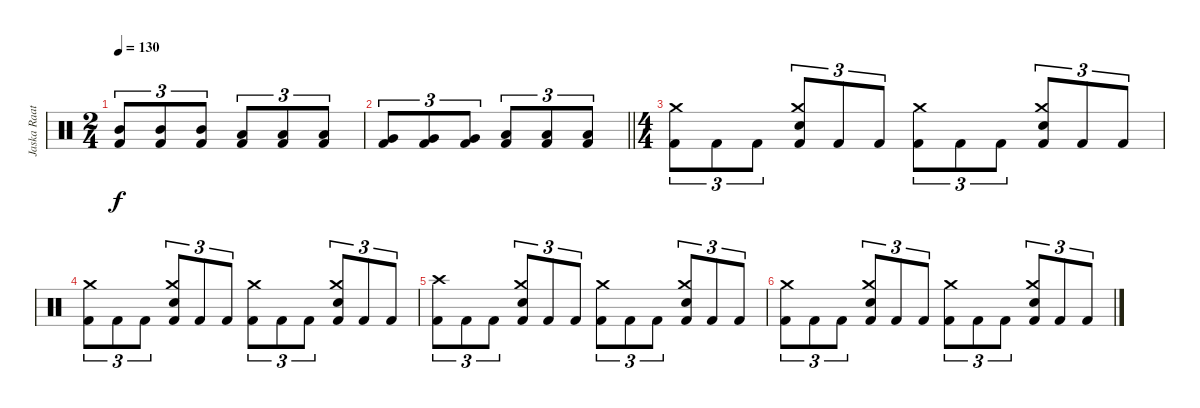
\track ("Jaska Raatikainen Drum Part" "Jaska Raat") {instrument percussion}
\staff {score}
\articulation defaults
\ts (2 4)
\tempo 130
\clef neutral
\ks c
("Mid Tom (hit)" "Kick (hit) 2").8{tu (3 2) dy f} ("Mid Tom (hit)" "Kick (hit) 2").8{tu (3 2)} ("Mid Tom (hit)" "Kick (hit) 2").8{tu (3 2)} ("Low Tom (hit)" "Kick (hit) 2").8{tu (3 2)} ("Low Tom (hit)" "Kick (hit) 2").8{tu (3 2)} ("Low Tom (hit)" "Kick (hit) 2").8{tu (3 2)} |
\barLineRight lightlight
("Very Low Tom (hit)" "Kick (hit) 2").8{tu (3 2)} ("Very Low Tom (hit)" "Kick (hit) 2").8{tu (3 2)} ("Very Low Tom (hit)" "Kick (hit) 2").8{tu (3 2)} ("Low Floor Tom (hit)" "Kick (hit) 2").8{tu (3 2)} ("Low Floor Tom (hit)" "Kick (hit) 2").8{tu (3 2)} ("Low Floor Tom (hit)" "Kick (hit) 2").8{tu (3 2)} |
\ts (4 4)
("Crash medium (hit)" "Kick (hit) 2").8{tu (3 2)} "Kick (hit) 2".8{tu (3 2)} "Kick (hit) 2".8{tu (3 2)} ("Crash medium (hit)" "Electric Snare (hit)" "Kick (hit) 2").8{tu (3 2)} "Kick (hit) 2".8{tu (3 2)} "Kick (hit) 2".8{tu (3 2)} ("Crash medium (hit)" "Kick (hit) 2").8{tu (3 2)} "Kick (hit) 2".8{tu (3 2)} "Kick (hit) 2".8{tu (3 2)} ("Crash medium (hit)" "Electric Snare (hit)" "Kick (hit) 2").8{tu (3 2)} "Kick (hit) 2".8{tu (3 2)} "Kick (hit) 2".8{tu (3 2)} |
("Crash medium (hit)" "Kick (hit) 2").8{tu (3 2)} "Kick (hit) 2".8{tu (3 2)} "Kick (hit) 2".8{tu (3 2)} ("Crash medium (hit)" "Electric Snare (hit)" "Kick (hit) 2").8{tu (3 2)} "Kick (hit) 2".8{tu (3 2)} "Kick (hit) 2".8{tu (3 2)} ("Crash medium (hit)" "Kick (hit) 2").8{tu (3 2)} "Kick (hit) 2".8{tu (3 2)} "Kick (hit) 2".8{tu (3 2)} ("Crash medium (hit)" "Electric Snare (hit)" "Kick (hit) 2").8{tu (3 2)} "Kick (hit) 2".8{tu (3 2)} "Kick (hit) 2".8{tu (3 2)} |
("Crash high (hit)" "Kick (hit) 2").8{tu (3 2)} "Kick (hit) 2".8{tu (3 2)} "Kick (hit) 2".8{tu (3 2)} ("Crash medium (hit)" "Electric Snare (hit)" "Kick (hit) 2").8{tu (3 2)} "Kick (hit) 2".8{tu (3 2)} "Kick (hit) 2".8{tu (3 2)} ("Crash medium (hit)" "Kick (hit) 2").8{tu (3 2)} "Kick (hit) 2".8{tu (3 2)} "Kick (hit) 2".8{tu (3 2)} ("Crash medium (hit)" "Electric Snare (hit)" "Kick (hit) 2").8{tu (3 2)} "Kick (hit) 2".8{tu (3 2)} "Kick (hit) 2".8{tu (3 2)} |
("Crash medium (hit)" "Kick (hit) 2").8{tu (3 2)} "Kick (hit) 2".8{tu (3 2)} "Kick (hit) 2".8{tu (3 2)} ("Crash medium (hit)" "Electric Snare (hit)" "Kick (hit) 2").8{tu (3 2)} "Kick (hit) 2".8{tu (3 2)} "Kick (hit) 2".8{tu (3 2)} ("Crash medium (hit)" "Kick (hit) 2").8{tu (3 2)} "Kick (hit) 2".8{tu (3 2)} "Kick (hit) 2".8{tu (3 2)} ("Crash medium (hit)" "Electric Snare (hit)" "Kick (hit) 2").8{tu (3 2)} "Kick (hit) 2".8{tu (3 2)} "Kick (hit) 2".8{tu (3 2)}
